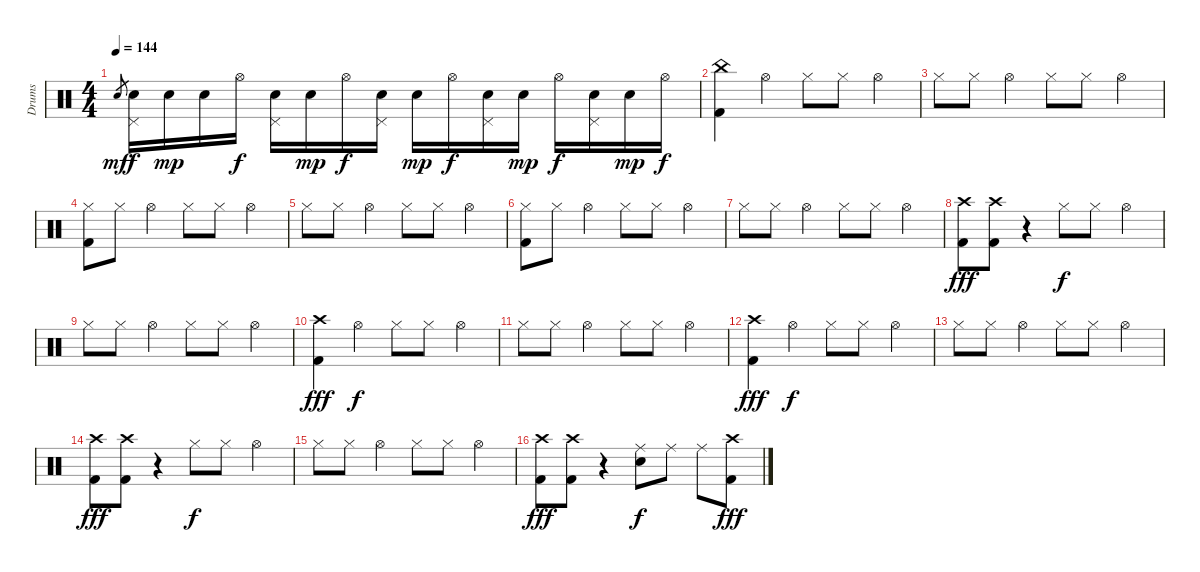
\track ("Drums" "Drums") {instrument percussion}
\staff {score}
\articulation defaults
\ts (4 4)
\tempo 144
\clef neutral
\ks c "Snare (hit)".8{gr dy mf}
("Pedal Hi-Hat (hit)" "Snare (hit) 2").16{dy f} "Snare (hit) 2".16{dy mp} "Snare (hit) 2".16 "Hi-Hat (open)".16{dy f} ("Pedal Hi-Hat (hit)" "Snare (hit) 2").16 "Snare (hit) 2".16{dy mp} "Hi-Hat (open)".16{dy f} ("Pedal Hi-Hat (hit)" "Snare (hit) 2").16 "Snare (hit) 2".16{dy mp} "Hi-Hat (open)".16{dy f} ("Pedal Hi-Hat (hit)" "Snare (hit) 2").16 "Snare (hit) 2".16{dy mp} "Hi-Hat (open)".16{dy f} ("Pedal Hi-Hat (hit)" "Snare (hit) 2").16 "Snare (hit) 2".16{dy mp} "Hi-Hat (open)".16{dy f} |
("China (hit)" "Kick (hit) 2").4 "Hi-Hat (open)".4 "Hi-Hat (closed)".8 "Hi-Hat (closed)".8 "Hi-Hat (open)".4 |
"Hi-Hat (closed)".8 "Hi-Hat (closed)".8 "Hi-Hat (open)".4 "Hi-Hat (closed)".8 "Hi-Hat (closed)".8 "Hi-Hat (open)".4 |
("Hi-Hat (closed)" "Kick (hit) 2").8 "Hi-Hat (closed)".8 "Hi-Hat (open)".4 "Hi-Hat (closed)".8 "Hi-Hat (closed)".8 "Hi-Hat (open)".4 |
"Hi-Hat (closed)".8 "Hi-Hat (closed)".8 "Hi-Hat (open)".4 "Hi-Hat (closed)".8 "Hi-Hat (closed)".8 "Hi-Hat (open)".4 |
("Hi-Hat (closed)" "Kick (hit) 2").8 "Hi-Hat (closed)".8 "Hi-Hat (open)".4 "Hi-Hat (closed)".8 "Hi-Hat (closed)".8 "Hi-Hat (open)".4 |
"Hi-Hat (closed)".8 "Hi-Hat (closed)".8 "Hi-Hat (open)".4 "Hi-Hat (closed)".8 "Hi-Hat (closed)".8 "Hi-Hat (open)".4 |
("Crash high (hit)" "Kick (hit) 2").8{dy fff} ("Crash high (hit)" "Kick (hit) 2").8 r.4 "Hi-Hat (closed)".8{dy f} "Hi-Hat (closed)".8 "Hi-Hat (open)".4 |
"Hi-Hat (closed)".8 "Hi-Hat (closed)".8 "Hi-Hat (open)".4 "Hi-Hat (closed)".8 "Hi-Hat (closed)".8 "Hi-Hat (open)".4 |
("Crash high (hit)" "Kick (hit) 2").4{dy fff} "Hi-Hat (open)".4{dy f} "Hi-Hat (closed)".8 "Hi-Hat (closed)".8 "Hi-Hat (open)".4 |
"Hi-Hat (closed)".8 "Hi-Hat (closed)".8 "Hi-Hat (open)".4 "Hi-Hat (closed)".8 "Hi-Hat (closed)".8 "Hi-Hat (open)".4 |
("Crash high (hit)" "Kick (hit) 2").4{dy fff} "Hi-Hat (open)".4{dy f} "Hi-Hat (closed)".8 "Hi-Hat (closed)".8 "Hi-Hat (open)".4 |
"Hi-Hat (closed)".8 "Hi-Hat (closed)".8 "Hi-Hat (open)".4 "Hi-Hat (closed)".8 "Hi-Hat (closed)".8 "Hi-Hat (open)".4 |
("Crash high (hit)" "Kick (hit) 2").8{dy fff} ("Crash high (hit)" "Kick (hit) 2").8 r.4 "Hi-Hat (closed)".8{dy f} "Hi-Hat (closed)".8 "Hi-Hat (open)".4 |
"Hi-Hat (closed)".8 "Hi-Hat (closed)".8 "Hi-Hat (open)".4 "Hi-Hat (closed)".8 "Hi-Hat (closed)".8 "Hi-Hat (open)".4 |
("Crash high (hit)" "Kick (hit) 2").8{dy fff} ("Crash high (hit)" "Kick (hit) 2").8 r.4 ("Ride (middle)" "Snare (hit) 2").8{dy f} "Ride (middle)".8 "Ride (middle)".8 ("Crash high (hit)" "Kick (hit) 2").8{dy fff}
